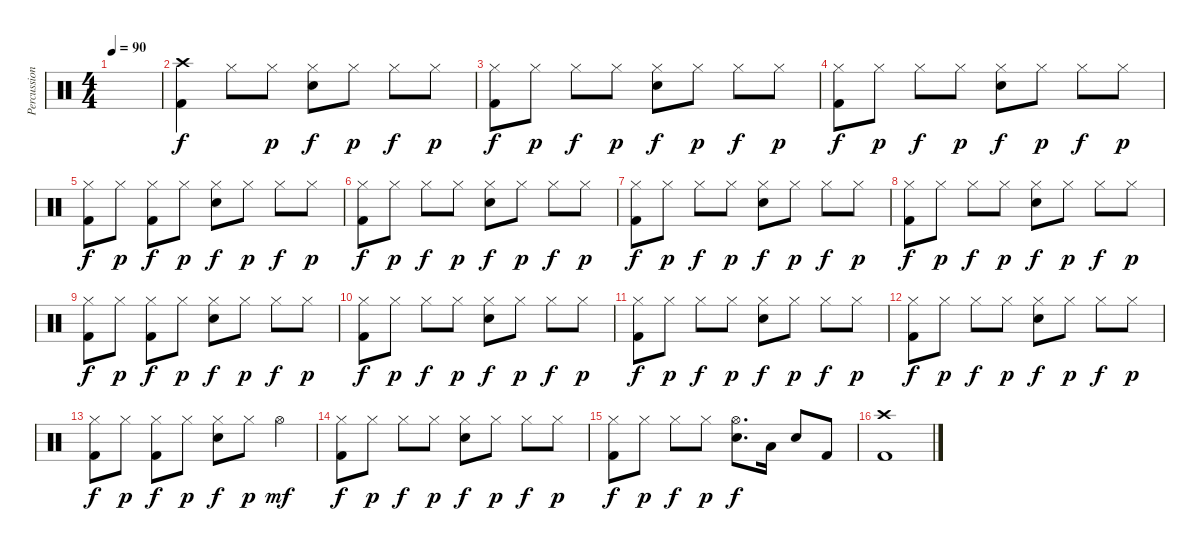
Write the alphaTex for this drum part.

\track ("Percussion" "Percussion") {instrument percussion}
\staff {score}
\articulation defaults
\ts (4 4)
\tempo 90
\clef neutral
\ks c
|
("Crash high (hit)" "Kick (hit) 2").4 "Hi-Hat (closed)".8 "Hi-Hat (closed)".8{dy p} ("Hi-Hat (closed)" "Electric Snare (hit)").8{dy f} "Hi-Hat (closed)".8{dy p} "Hi-Hat (closed)".8{dy f} "Hi-Hat (closed)".8{dy p} |
("Hi-Hat (closed)" "Kick (hit) 2").8{dy f} "Hi-Hat (closed)".8{dy p} "Hi-Hat (closed)".8{dy f} "Hi-Hat (closed)".8{dy p} ("Hi-Hat (closed)" "Electric Snare (hit)").8{dy f} "Hi-Hat (closed)".8{dy p} "Hi-Hat (closed)".8{dy f} "Hi-Hat (closed)".8{dy p} |
("Hi-Hat (closed)" "Kick (hit) 2").8{dy f} "Hi-Hat (closed)".8{dy p} "Hi-Hat (closed)".8{dy f} "Hi-Hat (closed)".8{dy p} ("Hi-Hat (closed)" "Electric Snare (hit)").8{dy f} "Hi-Hat (closed)".8{dy p} "Hi-Hat (closed)".8{dy f} "Hi-Hat (closed)".8{dy p} |
("Hi-Hat (closed)" "Kick (hit) 2").8{dy f} "Hi-Hat (closed)".8{dy p} ("Hi-Hat (closed)" "Kick (hit) 2").8{dy f} "Hi-Hat (closed)".8{dy p} ("Hi-Hat (closed)" "Electric Snare (hit)").8{dy f} "Hi-Hat (closed)".8{dy p} "Hi-Hat (closed)".8{dy f} "Hi-Hat (closed)".8{dy p} |
("Hi-Hat (closed)" "Kick (hit) 2").8{dy f} "Hi-Hat (closed)".8{dy p} "Hi-Hat (closed)".8{dy f} "Hi-Hat (closed)".8{dy p} ("Hi-Hat (closed)" "Electric Snare (hit)").8{dy f} "Hi-Hat (closed)".8{dy p} "Hi-Hat (closed)".8{dy f} "Hi-Hat (closed)".8{dy p} |
("Hi-Hat (closed)" "Kick (hit) 2").8{dy f} "Hi-Hat (closed)".8{dy p} "Hi-Hat (closed)".8{dy f} "Hi-Hat (closed)".8{dy p} ("Hi-Hat (closed)" "Electric Snare (hit)").8{dy f} "Hi-Hat (closed)".8{dy p} "Hi-Hat (closed)".8{dy f} "Hi-Hat (closed)".8{dy p} |
("Hi-Hat (closed)" "Kick (hit) 2").8{dy f} "Hi-Hat (closed)".8{dy p} "Hi-Hat (closed)".8{dy f} "Hi-Hat (closed)".8{dy p} ("Hi-Hat (closed)" "Electric Snare (hit)").8{dy f} "Hi-Hat (closed)".8{dy p} "Hi-Hat (closed)".8{dy f} "Hi-Hat (closed)".8{dy p} |
("Hi-Hat (closed)" "Kick (hit) 2").8{dy f} "Hi-Hat (closed)".8{dy p} ("Hi-Hat (closed)" "Kick (hit) 2").8{dy f} "Hi-Hat (closed)".8{dy p} ("Hi-Hat (closed)" "Electric Snare (hit)").8{dy f} "Hi-Hat (closed)".8{dy p} "Hi-Hat (closed)".8{dy f} "Hi-Hat (closed)".8{dy p} |
("Hi-Hat (closed)" "Kick (hit) 2").8{dy f} "Hi-Hat (closed)".8{dy p} "Hi-Hat (closed)".8{dy f} "Hi-Hat (closed)".8{dy p} ("Hi-Hat (closed)" "Electric Snare (hit)").8{dy f} "Hi-Hat (closed)".8{dy p} "Hi-Hat (closed)".8{dy f} "Hi-Hat (closed)".8{dy p} |
("Hi-Hat (closed)" "Kick (hit) 2").8{dy f} "Hi-Hat (closed)".8{dy p} "Hi-Hat (closed)".8{dy f} "Hi-Hat (closed)".8{dy p} ("Hi-Hat (closed)" "Electric Snare (hit)").8{dy f} "Hi-Hat (closed)".8{dy p} "Hi-Hat (closed)".8{dy f} "Hi-Hat (closed)".8{dy p} |
("Hi-Hat (closed)" "Kick (hit) 2").8{dy f} "Hi-Hat (closed)".8{dy p} "Hi-Hat (closed)".8{dy f} "Hi-Hat (closed)".8{dy p} ("Hi-Hat (closed)" "Electric Snare (hit)").8{dy f} "Hi-Hat (closed)".8{dy p} "Hi-Hat (closed)".8{dy f} "Hi-Hat (closed)".8{dy p} |
("Hi-Hat (closed)" "Kick (hit) 2").8{dy f} "Hi-Hat (closed)".8{dy p} ("Hi-Hat (closed)" "Kick (hit) 2").8{dy f} "Hi-Hat (closed)".8{dy p} ("Hi-Hat (closed)" "Electric Snare (hit)").8{dy f} "Hi-Hat (closed)".8{dy p} "Hi-Hat (open)".4{dy mf} |
("Hi-Hat (closed)" "Kick (hit) 2").8{dy f} "Hi-Hat (closed)".8{dy p} "Hi-Hat (closed)".8{dy f} "Hi-Hat (closed)".8{dy p} ("Hi-Hat (closed)" "Electric Snare (hit)").8{dy f} "Hi-Hat (closed)".8{dy p} "Hi-Hat (closed)".8{dy f} "Hi-Hat (closed)".8{dy p} |
("Hi-Hat (closed)" "Kick (hit) 2").8{dy f} "Hi-Hat (closed)".8{dy p} "Hi-Hat (closed)".8{dy f} "Hi-Hat (closed)".8{dy p} ("Hi-Hat (open)" "Electric Snare (hit)").8{d dy f} "Low Tom (hit)".16 "Electric Snare (hit)".8 "Kick (hit) 2".8 |
("Crash high (hit)" "Kick (hit) 2").1
